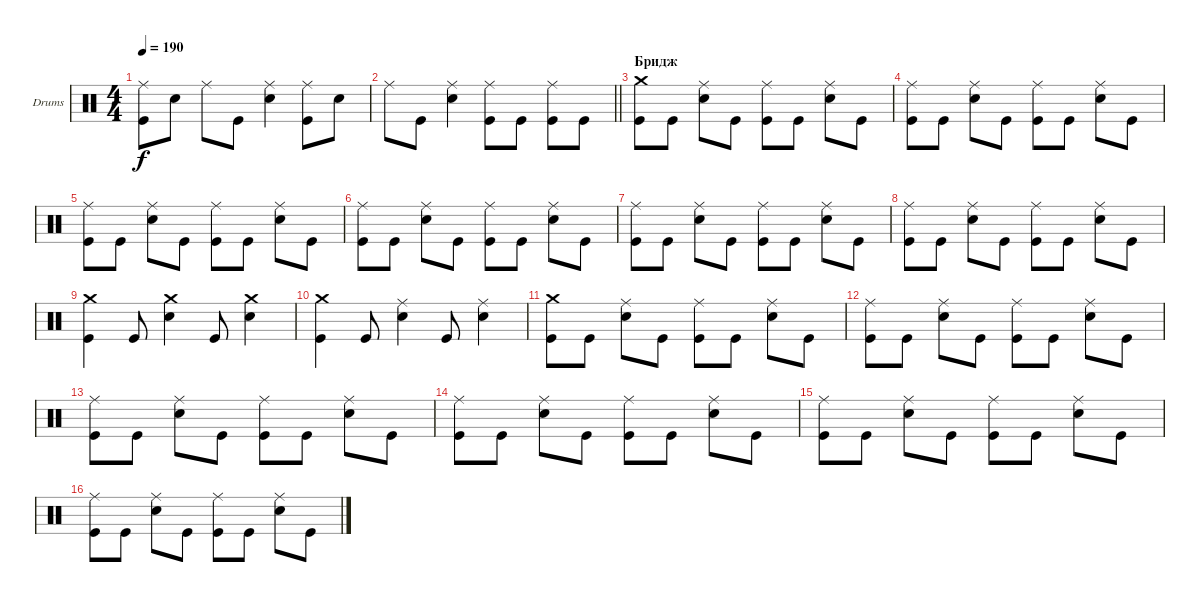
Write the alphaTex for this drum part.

\bracketExtendMode groupsimilarinstruments
\firstSystemTrackNameOrientation horizontal
\otherSystemsTrackNameOrientation horizontal
\track ("Максим Удалов" "Drums") {instrument percussion}
\staff {score}
\articulation defaults
\ts (4 4)
\tempo 190
\clef neutral
\ks c
("Kick (hit)" "Ride (middle)").8{dy f} "Snare (hit) 2".8 "Ride (middle)".8 "Kick (hit)".8 ("Snare (hit) 2" "Ride (middle)").4 ("Kick (hit)" "Ride (middle)").8 "Snare (hit) 2".8 |
\barLineRight lightlight "Ride (middle)".8 "Kick (hit)".8
("Snare (hit) 2" "Ride (middle)").4 ("Kick (hit)" "Ride (middle)").8 "Kick (hit)".8 ("Kick (hit)" "Ride (middle)").8 "Kick (hit)".8 |
\section ("" "Бридж")
("Kick (hit)" "Crash medium (hit)").8 "Kick (hit)".8 ("Snare (hit) 2" "Ride (middle)").8 "Kick (hit)".8 ("Kick (hit)" "Ride (middle)").8 "Kick (hit)".8 ("Snare (hit) 2" "Ride (middle)").8 "Kick (hit)".8 |
("Kick (hit)" "Ride (middle)").8 "Kick (hit)".8 ("Snare (hit) 2" "Ride (middle)").8 "Kick (hit)".8 ("Kick (hit)" "Ride (middle)").8 "Kick (hit)".8 ("Snare (hit) 2" "Ride (middle)").8 "Kick (hit)".8 |
("Kick (hit)" "Ride (middle)").8 "Kick (hit)".8 ("Snare (hit) 2" "Ride (middle)").8 "Kick (hit)".8 ("Kick (hit)" "Ride (middle)").8 "Kick (hit)".8 ("Snare (hit) 2" "Ride (middle)").8 "Kick (hit)".8 |
("Kick (hit)" "Ride (middle)").8 "Kick (hit)".8 ("Snare (hit) 2" "Ride (middle)").8 "Kick (hit)".8 ("Kick (hit)" "Ride (middle)").8 "Kick (hit)".8 ("Snare (hit) 2" "Ride (middle)").8 "Kick (hit)".8 |
("Kick (hit)" "Ride (middle)").8 "Kick (hit)".8 ("Snare (hit) 2" "Ride (middle)").8 "Kick (hit)".8 ("Kick (hit)" "Ride (middle)").8 "Kick (hit)".8 ("Snare (hit) 2" "Ride (middle)").8 "Kick (hit)".8 |
("Kick (hit)" "Ride (middle)").8 "Kick (hit)".8 ("Snare (hit) 2" "Ride (middle)").8 "Kick (hit)".8 ("Kick (hit)" "Ride (middle)").8 "Kick (hit)".8 ("Snare (hit) 2" "Ride (middle)").8 "Kick (hit)".8 |
("Kick (hit)" "Crash medium (hit)").4 "Kick (hit)".8 ("Snare (hit) 2" "Crash medium (hit)").4 "Kick (hit)".8 ("Snare (hit) 2" "Crash medium (hit)").4 |
("Kick (hit)" "Crash medium (hit)").4 "Kick (hit)".8 ("Snare (hit) 2" "Ride (middle)").4 "Kick (hit)".8 ("Snare (hit) 2" "Ride (middle)").4 |
("Kick (hit)" "Crash medium (hit)").8 "Kick (hit)".8 ("Snare (hit) 2" "Ride (middle)").8 "Kick (hit)".8 ("Kick (hit)" "Ride (middle)").8 "Kick (hit)".8 ("Snare (hit) 2" "Ride (middle)").8 "Kick (hit)".8 |
("Kick (hit)" "Ride (middle)").8 "Kick (hit)".8 ("Snare (hit) 2" "Ride (middle)").8 "Kick (hit)".8 ("Kick (hit)" "Ride (middle)").8 "Kick (hit)".8 ("Snare (hit) 2" "Ride (middle)").8 "Kick (hit)".8 |
("Kick (hit)" "Ride (middle)").8 "Kick (hit)".8 ("Snare (hit) 2" "Ride (middle)").8 "Kick (hit)".8 ("Kick (hit)" "Ride (middle)").8 "Kick (hit)".8 ("Snare (hit) 2" "Ride (middle)").8 "Kick (hit)".8 |
("Kick (hit)" "Ride (middle)").8 "Kick (hit)".8 ("Snare (hit) 2" "Ride (middle)").8 "Kick (hit)".8 ("Kick (hit)" "Ride (middle)").8 "Kick (hit)".8 ("Snare (hit) 2" "Ride (middle)").8 "Kick (hit)".8 |
("Kick (hit)" "Ride (middle)").8 "Kick (hit)".8 ("Snare (hit) 2" "Ride (middle)").8 "Kick (hit)".8 ("Kick (hit)" "Ride (middle)").8 "Kick (hit)".8 ("Snare (hit) 2" "Ride (middle)").8 "Kick (hit)".8 |
("Kick (hit)" "Ride (middle)").8 "Kick (hit)".8 ("Snare (hit) 2" "Ride (middle)").8 "Kick (hit)".8 ("Kick (hit)" "Ride (middle)").8 "Kick (hit)".8 ("Snare (hit) 2" "Ride (middle)").8 "Kick (hit)".8
